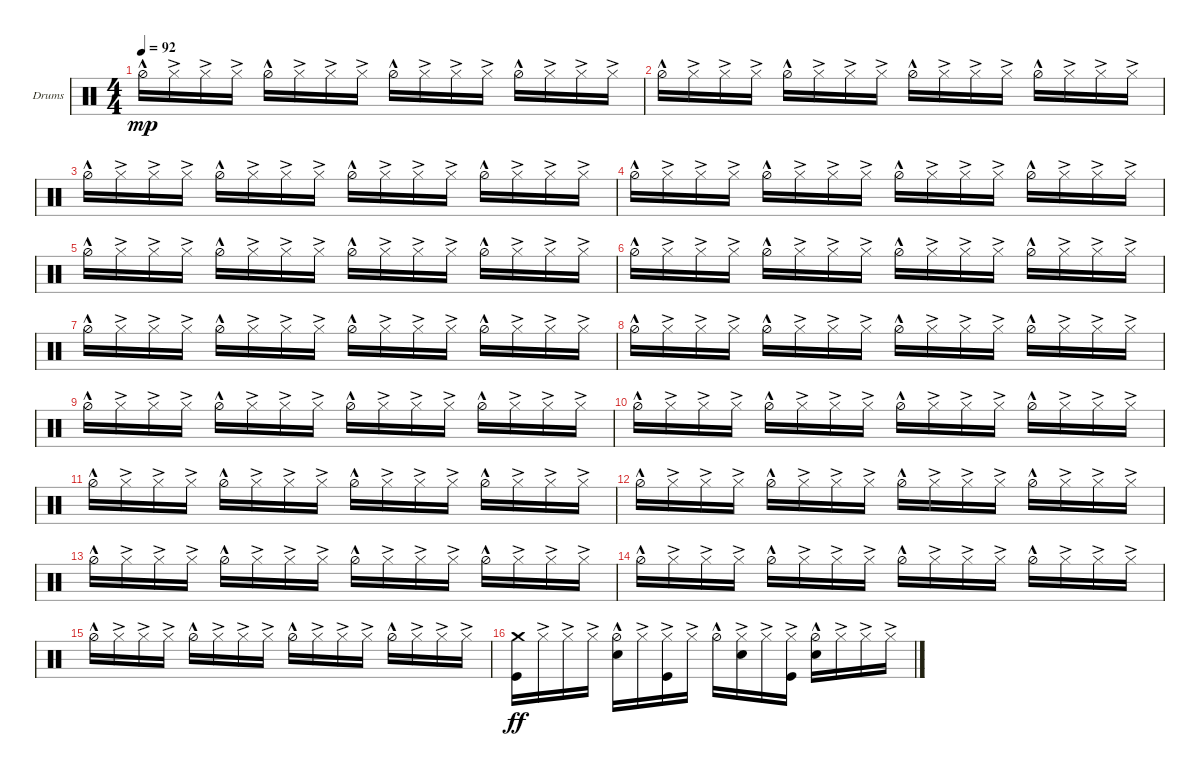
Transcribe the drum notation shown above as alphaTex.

\defaultSystemsLayout 4
\bracketExtendMode groupsimilarinstruments
\firstSystemTrackNameOrientation horizontal
\otherSystemsTrackNameOrientation horizontal
\track ("Drumkit" "Drums") {instrument percussion}
\staff {score}
\articulation defaults
\ts (4 4)
\tempo 92
\clef neutral
\ks c "Hi-Hat (half)"{hac}.16{dy mp} "Hi-Hat (closed)"{ac}.16 "Hi-Hat (closed)"{ac}.16 "Hi-Hat (closed)"{ac}.16 "Hi-Hat (half)"{hac}.16 "Hi-Hat (closed)"{ac}.16 "Hi-Hat (closed)"{ac}.16 "Hi-Hat (closed)"{ac}.16 "Hi-Hat (half)"{hac}.16 "Hi-Hat (closed)"{ac}.16 "Hi-Hat (closed)"{ac}.16 "Hi-Hat (closed)"{ac}.16 "Hi-Hat (half)"{hac}.16 "Hi-Hat (closed)"{ac}.16 "Hi-Hat (closed)"{ac}.16 "Hi-Hat (closed)"{ac}.16
|
"Hi-Hat (half)"{hac}.16 "Hi-Hat (closed)"{ac}.16 "Hi-Hat (closed)"{ac}.16 "Hi-Hat (closed)"{ac}.16 "Hi-Hat (half)"{hac}.16 "Hi-Hat (closed)"{ac}.16 "Hi-Hat (closed)"{ac}.16 "Hi-Hat (closed)"{ac}.16 "Hi-Hat (half)"{hac}.16 "Hi-Hat (closed)"{ac}.16 "Hi-Hat (closed)"{ac}.16 "Hi-Hat (closed)"{ac}.16 "Hi-Hat (half)"{hac}.16 "Hi-Hat (closed)"{ac}.16 "Hi-Hat (closed)"{ac}.16 "Hi-Hat (closed)"{ac}.16 |
"Hi-Hat (half)"{hac}.16 "Hi-Hat (closed)"{ac}.16 "Hi-Hat (closed)"{ac}.16 "Hi-Hat (closed)"{ac}.16 "Hi-Hat (half)"{hac}.16 "Hi-Hat (closed)"{ac}.16 "Hi-Hat (closed)"{ac}.16 "Hi-Hat (closed)"{ac}.16 "Hi-Hat (half)"{hac}.16 "Hi-Hat (closed)"{ac}.16 "Hi-Hat (closed)"{ac}.16 "Hi-Hat (closed)"{ac}.16 "Hi-Hat (half)"{hac}.16 "Hi-Hat (closed)"{ac}.16 "Hi-Hat (closed)"{ac}.16 "Hi-Hat (closed)"{ac}.16 |
"Hi-Hat (half)"{hac}.16 "Hi-Hat (closed)"{ac}.16 "Hi-Hat (closed)"{ac}.16 "Hi-Hat (closed)"{ac}.16 "Hi-Hat (half)"{hac}.16 "Hi-Hat (closed)"{ac}.16 "Hi-Hat (closed)"{ac}.16 "Hi-Hat (closed)"{ac}.16 "Hi-Hat (half)"{hac}.16 "Hi-Hat (closed)"{ac}.16 "Hi-Hat (closed)"{ac}.16 "Hi-Hat (closed)"{ac}.16 "Hi-Hat (half)"{hac}.16 "Hi-Hat (closed)"{ac}.16 "Hi-Hat (closed)"{ac}.16 "Hi-Hat (closed)"{ac}.16 |
"Hi-Hat (half)"{hac}.16 "Hi-Hat (closed)"{ac}.16 "Hi-Hat (closed)"{ac}.16 "Hi-Hat (closed)"{ac}.16 "Hi-Hat (half)"{hac}.16 "Hi-Hat (closed)"{ac}.16 "Hi-Hat (closed)"{ac}.16 "Hi-Hat (closed)"{ac}.16 "Hi-Hat (half)"{hac}.16 "Hi-Hat (closed)"{ac}.16 "Hi-Hat (closed)"{ac}.16 "Hi-Hat (closed)"{ac}.16 "Hi-Hat (half)"{hac}.16 "Hi-Hat (closed)"{ac}.16 "Hi-Hat (closed)"{ac}.16 "Hi-Hat (closed)"{ac}.16 |
"Hi-Hat (half)"{hac}.16 "Hi-Hat (closed)"{ac}.16 "Hi-Hat (closed)"{ac}.16 "Hi-Hat (closed)"{ac}.16 "Hi-Hat (half)"{hac}.16 "Hi-Hat (closed)"{ac}.16 "Hi-Hat (closed)"{ac}.16 "Hi-Hat (closed)"{ac}.16 "Hi-Hat (half)"{hac}.16 "Hi-Hat (closed)"{ac}.16 "Hi-Hat (closed)"{ac}.16 "Hi-Hat (closed)"{ac}.16 "Hi-Hat (half)"{hac}.16 "Hi-Hat (closed)"{ac}.16 "Hi-Hat (closed)"{ac}.16 "Hi-Hat (closed)"{ac}.16 |
"Hi-Hat (half)"{hac}.16 "Hi-Hat (closed)"{ac}.16 "Hi-Hat (closed)"{ac}.16 "Hi-Hat (closed)"{ac}.16 "Hi-Hat (half)"{hac}.16 "Hi-Hat (closed)"{ac}.16 "Hi-Hat (closed)"{ac}.16 "Hi-Hat (closed)"{ac}.16 "Hi-Hat (half)"{hac}.16 "Hi-Hat (closed)"{ac}.16 "Hi-Hat (closed)"{ac}.16 "Hi-Hat (closed)"{ac}.16 "Hi-Hat (half)"{hac}.16 "Hi-Hat (closed)"{ac}.16 "Hi-Hat (closed)"{ac}.16 "Hi-Hat (closed)"{ac}.16 |
"Hi-Hat (half)"{hac}.16 "Hi-Hat (closed)"{ac}.16 "Hi-Hat (closed)"{ac}.16 "Hi-Hat (closed)"{ac}.16 "Hi-Hat (half)"{hac}.16 "Hi-Hat (closed)"{ac}.16 "Hi-Hat (closed)"{ac}.16 "Hi-Hat (closed)"{ac}.16 "Hi-Hat (half)"{hac}.16 "Hi-Hat (closed)"{ac}.16 "Hi-Hat (closed)"{ac}.16 "Hi-Hat (closed)"{ac}.16 "Hi-Hat (half)"{hac}.16 "Hi-Hat (closed)"{ac}.16 "Hi-Hat (closed)"{ac}.16 "Hi-Hat (closed)"{ac}.16 |
"Hi-Hat (half)"{hac}.16 "Hi-Hat (closed)"{ac}.16 "Hi-Hat (closed)"{ac}.16 "Hi-Hat (closed)"{ac}.16 "Hi-Hat (half)"{hac}.16 "Hi-Hat (closed)"{ac}.16 "Hi-Hat (closed)"{ac}.16 "Hi-Hat (closed)"{ac}.16 "Hi-Hat (half)"{hac}.16 "Hi-Hat (closed)"{ac}.16 "Hi-Hat (closed)"{ac}.16 "Hi-Hat (closed)"{ac}.16 "Hi-Hat (half)"{hac}.16 "Hi-Hat (closed)"{ac}.16 "Hi-Hat (closed)"{ac}.16 "Hi-Hat (closed)"{ac}.16 |
"Hi-Hat (half)"{hac}.16 "Hi-Hat (closed)"{ac}.16 "Hi-Hat (closed)"{ac}.16 "Hi-Hat (closed)"{ac}.16 "Hi-Hat (half)"{hac}.16 "Hi-Hat (closed)"{ac}.16 "Hi-Hat (closed)"{ac}.16 "Hi-Hat (closed)"{ac}.16 "Hi-Hat (half)"{hac}.16 "Hi-Hat (closed)"{ac}.16 "Hi-Hat (closed)"{ac}.16 "Hi-Hat (closed)"{ac}.16 "Hi-Hat (half)"{hac}.16 "Hi-Hat (closed)"{ac}.16 "Hi-Hat (closed)"{ac}.16 "Hi-Hat (closed)"{ac}.16 |
"Hi-Hat (half)"{hac}.16 "Hi-Hat (closed)"{ac}.16 "Hi-Hat (closed)"{ac}.16 "Hi-Hat (closed)"{ac}.16 "Hi-Hat (half)"{hac}.16 "Hi-Hat (closed)"{ac}.16 "Hi-Hat (closed)"{ac}.16 "Hi-Hat (closed)"{ac}.16 "Hi-Hat (half)"{hac}.16 "Hi-Hat (closed)"{ac}.16 "Hi-Hat (closed)"{ac}.16 "Hi-Hat (closed)"{ac}.16 "Hi-Hat (half)"{hac}.16 "Hi-Hat (closed)"{ac}.16 "Hi-Hat (closed)"{ac}.16 "Hi-Hat (closed)"{ac}.16 |
"Hi-Hat (half)"{hac}.16 "Hi-Hat (closed)"{ac}.16 "Hi-Hat (closed)"{ac}.16 "Hi-Hat (closed)"{ac}.16 "Hi-Hat (half)"{hac}.16 "Hi-Hat (closed)"{ac}.16 "Hi-Hat (closed)"{ac}.16 "Hi-Hat (closed)"{ac}.16 "Hi-Hat (half)"{hac}.16 "Hi-Hat (closed)"{ac}.16 "Hi-Hat (closed)"{ac}.16 "Hi-Hat (closed)"{ac}.16 "Hi-Hat (half)"{hac}.16 "Hi-Hat (closed)"{ac}.16 "Hi-Hat (closed)"{ac}.16 "Hi-Hat (closed)"{ac}.16 |
"Hi-Hat (half)"{hac}.16 "Hi-Hat (closed)"{ac}.16 "Hi-Hat (closed)"{ac}.16 "Hi-Hat (closed)"{ac}.16 "Hi-Hat (half)"{hac}.16 "Hi-Hat (closed)"{ac}.16 "Hi-Hat (closed)"{ac}.16 "Hi-Hat (closed)"{ac}.16 "Hi-Hat (half)"{hac}.16 "Hi-Hat (closed)"{ac}.16 "Hi-Hat (closed)"{ac}.16 "Hi-Hat (closed)"{ac}.16 "Hi-Hat (half)"{hac}.16 "Hi-Hat (closed)"{ac}.16 "Hi-Hat (closed)"{ac}.16 "Hi-Hat (closed)"{ac}.16 |
"Hi-Hat (half)"{hac}.16 "Hi-Hat (closed)"{ac}.16 "Hi-Hat (closed)"{ac}.16 "Hi-Hat (closed)"{ac}.16 "Hi-Hat (half)"{hac}.16 "Hi-Hat (closed)"{ac}.16 "Hi-Hat (closed)"{ac}.16 "Hi-Hat (closed)"{ac}.16 "Hi-Hat (half)"{hac}.16 "Hi-Hat (closed)"{ac}.16 "Hi-Hat (closed)"{ac}.16 "Hi-Hat (closed)"{ac}.16 "Hi-Hat (half)"{hac}.16 "Hi-Hat (closed)"{ac}.16 "Hi-Hat (closed)"{ac}.16 "Hi-Hat (closed)"{ac}.16 |
"Hi-Hat (half)"{hac}.16 "Hi-Hat (closed)"{ac}.16 "Hi-Hat (closed)"{ac}.16 "Hi-Hat (closed)"{ac}.16 "Hi-Hat (half)"{hac}.16 "Hi-Hat (closed)"{ac}.16 "Hi-Hat (closed)"{ac}.16 "Hi-Hat (closed)"{ac}.16 "Hi-Hat (half)"{hac}.16 "Hi-Hat (closed)"{ac}.16 "Hi-Hat (closed)"{ac}.16 "Hi-Hat (closed)"{ac}.16 "Hi-Hat (half)"{hac}.16 "Hi-Hat (closed)"{ac}.16 "Hi-Hat (closed)"{ac}.16 "Hi-Hat (closed)"{ac}.16 |
("Kick (hit)" "Crash medium (hit)").16{dy ff} "Hi-Hat (closed)"{ac}.16 "Hi-Hat (closed)"{ac}.16 "Hi-Hat (closed)"{ac}.16 ("Hi-Hat (half)"{hac} "Snare (hit) 2").16 "Hi-Hat (closed)"{ac}.16 ("Hi-Hat (closed)"{ac} "Kick (hit)").16 "Hi-Hat (closed)"{ac}.16 "Hi-Hat (half)"{hac}.16 ("Hi-Hat (closed)"{ac} "Snare (hit) 2").16 "Hi-Hat (closed)"{ac}.16 ("Hi-Hat (closed)"{ac} "Kick (hit)").16 ("Hi-Hat (half)"{hac} "Snare (hit) 2").16 "Hi-Hat (closed)"{ac}.16 "Hi-Hat (closed)"{ac}.16 "Hi-Hat (closed)"{ac}.16
